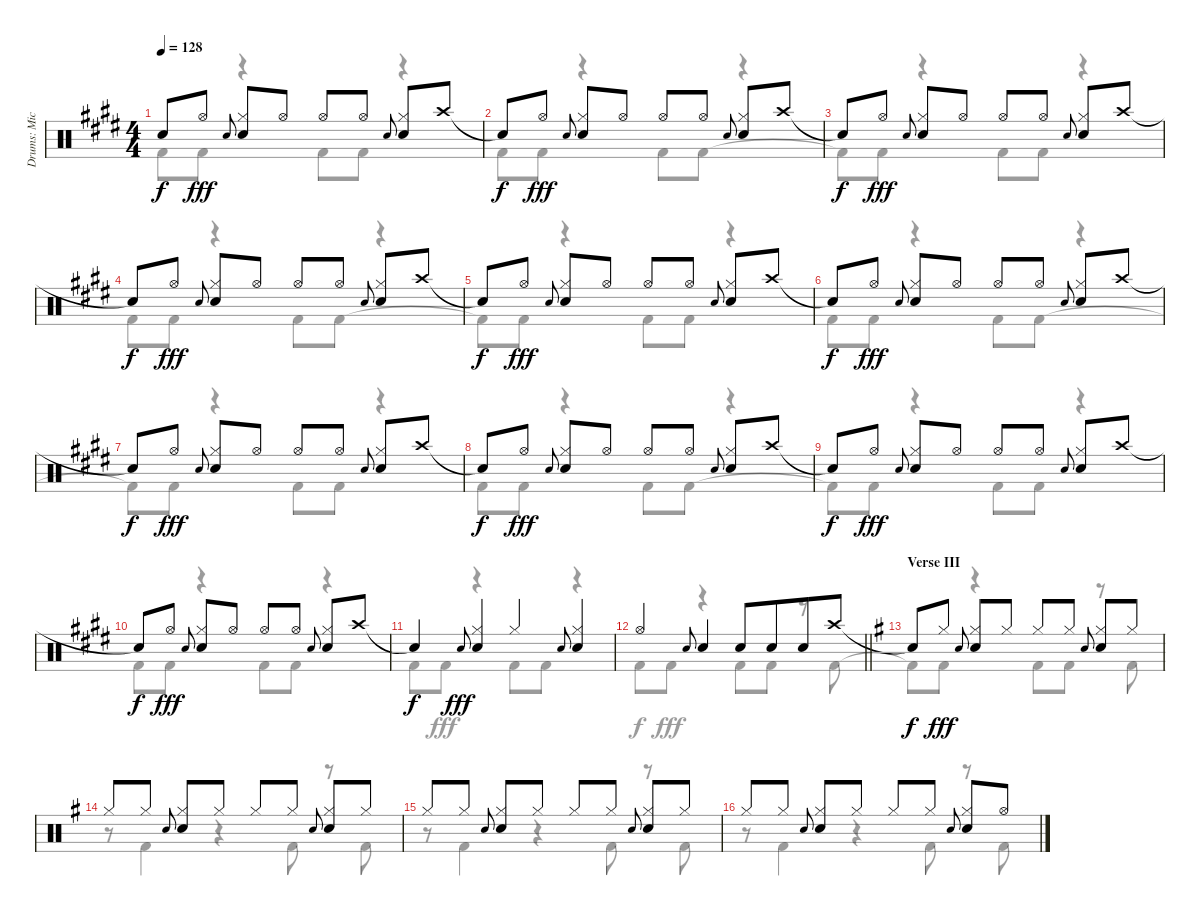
\track ("Drums: Mick" "Drums: Mic") {instrument percussion}
\staff {score}
\articulation defaults
\voice
\ts (4 4)
\tempo 128
\clef neutral
\ks e "Snare (hit)"{t}.8{dy f} "Hi-Hat (open)".8{dy fff} "Electric Snare (hit)".8{gr onbeat beam merge}
("Hi-Hat (closed)" "Snare (hit) 2").8 "Hi-Hat (open)".8 "Hi-Hat (open)".8 "Hi-Hat (open)".8 "Electric Snare (hit)".8{gr onbeat beam merge} ("Hi-Hat (closed)" "Snare (hit) 2").8 "Crash high (hit)".8 |
"Snare (hit)"{t}.8{dy f} "Hi-Hat (open)".8{dy fff} "Electric Snare (hit)".8{gr onbeat beam merge} ("Hi-Hat (closed)" "Snare (hit) 2").8 "Hi-Hat (open)".8 "Hi-Hat (open)".8 "Hi-Hat (open)".8 "Electric Snare (hit)".8{gr onbeat beam merge} ("Hi-Hat (closed)" "Snare (hit) 2").8 "Crash high (hit)".8 |
"Snare (hit)"{t}.8{dy f} "Hi-Hat (open)".8{dy fff} "Electric Snare (hit)".8{gr onbeat beam merge} ("Hi-Hat (closed)" "Snare (hit) 2").8 "Hi-Hat (open)".8 "Hi-Hat (open)".8 "Hi-Hat (open)".8 "Electric Snare (hit)".8{gr onbeat beam merge} ("Hi-Hat (closed)" "Snare (hit) 2").8 "Crash high (hit)".8 |
"Snare (hit)"{t}.8{dy f} "Hi-Hat (open)".8{dy fff} "Electric Snare (hit)".8{gr onbeat beam merge} ("Hi-Hat (closed)" "Snare (hit) 2").8 "Hi-Hat (open)".8 "Hi-Hat (open)".8 "Hi-Hat (open)".8 "Electric Snare (hit)".8{gr onbeat beam merge} ("Hi-Hat (closed)" "Snare (hit) 2").8 "Crash high (hit)".8 |
"Snare (hit)"{t}.8{dy f} "Hi-Hat (open)".8{dy fff} "Electric Snare (hit)".8{gr onbeat beam merge} ("Hi-Hat (closed)" "Snare (hit) 2").8 "Hi-Hat (open)".8 "Hi-Hat (open)".8 "Hi-Hat (open)".8 "Electric Snare (hit)".8{gr onbeat beam merge} ("Hi-Hat (closed)" "Snare (hit) 2").8 "Crash high (hit)".8 |
"Snare (hit)"{t}.8{dy f} "Hi-Hat (open)".8{dy fff} "Electric Snare (hit)".8{gr onbeat beam merge} ("Hi-Hat (closed)" "Snare (hit) 2").8 "Hi-Hat (open)".8 "Hi-Hat (open)".8 "Hi-Hat (open)".8 "Electric Snare (hit)".8{gr onbeat beam merge} ("Hi-Hat (closed)" "Snare (hit) 2").8 "Crash high (hit)".8 |
"Snare (hit)"{t}.8{dy f} "Hi-Hat (open)".8{dy fff} "Electric Snare (hit)".8{gr onbeat beam merge} ("Hi-Hat (closed)" "Snare (hit) 2").8 "Hi-Hat (open)".8 "Hi-Hat (open)".8 "Hi-Hat (open)".8 "Electric Snare (hit)".8{gr onbeat beam merge} ("Hi-Hat (closed)" "Snare (hit) 2").8 "Crash high (hit)".8 |
"Snare (hit)"{t}.8{dy f} "Hi-Hat (open)".8{dy fff} "Electric Snare (hit)".8{gr onbeat beam merge} ("Hi-Hat (closed)" "Snare (hit) 2").8 "Hi-Hat (open)".8 "Hi-Hat (open)".8 "Hi-Hat (open)".8 "Electric Snare (hit)".8{gr onbeat beam merge} ("Hi-Hat (closed)" "Snare (hit) 2").8 "Crash high (hit)".8 |
"Snare (hit)"{t}.8{dy f} "Hi-Hat (open)".8{dy fff} "Electric Snare (hit)".8{gr onbeat beam merge} ("Hi-Hat (closed)" "Snare (hit) 2").8 "Hi-Hat (open)".8 "Hi-Hat (open)".8 "Hi-Hat (open)".8 "Electric Snare (hit)".8{gr onbeat beam merge} ("Hi-Hat (closed)" "Snare (hit) 2").8 "Crash high (hit)".8 |
"Snare (hit)"{t}.8{dy f} "Hi-Hat (open)".8{dy fff} "Electric Snare (hit)".8{gr onbeat beam merge} ("Hi-Hat (closed)" "Snare (hit) 2").8 "Hi-Hat (open)".8 "Hi-Hat (open)".8 "Hi-Hat (open)".8 "Electric Snare (hit)".8{gr onbeat beam merge} ("Hi-Hat (closed)" "Snare (hit) 2").8 "Crash high (hit)".8 |
"Snare (hit)"{t}.4{dy f} "Electric Snare (hit)".8{gr onbeat dy fff} ("Hi-Hat (closed)" "Snare (hit) 2").4 "Hi-Hat (closed)".4 "Electric Snare (hit)".8{gr onbeat} ("Hi-Hat (closed)" "Snare (hit) 2").4 |
\barLineRight lightlight "Hi-Hat (open)".4 "Electric Snare (hit)".8{gr onbeat} "Snare (hit) 2".4 "Snare (hit) 2".8 "Snare (hit) 2".8{beam merge} "Snare (hit) 2".8 "Crash high (hit)".8
|
\section ("" "Verse III")
\ks g "Snare (hit)"{t}.8{dy f} "Hi-Hat (closed)".8{dy fff} "Electric Snare (hit)".8{gr onbeat beam merge}
("Hi-Hat (closed)" "Snare (hit) 2").8 "Hi-Hat (closed)".8 "Hi-Hat (closed)".8 "Hi-Hat (closed)".8 "Electric Snare (hit)".8{gr onbeat beam merge} ("Hi-Hat (closed)" "Snare (hit) 2").8 "Hi-Hat (closed)".8 |
"Hi-Hat (closed)".8 "Hi-Hat (closed)".8 "Electric Snare (hit)".8{gr onbeat beam merge} ("Hi-Hat (closed)" "Snare (hit) 2").8 "Hi-Hat (closed)".8 "Hi-Hat (closed)".8 "Hi-Hat (closed)".8 "Electric Snare (hit)".8{gr onbeat beam merge} ("Hi-Hat (closed)" "Snare (hit) 2").8 "Hi-Hat (closed)".8 |
"Hi-Hat (closed)".8 "Hi-Hat (closed)".8 "Electric Snare (hit)".8{gr onbeat beam merge} ("Hi-Hat (closed)" "Snare (hit) 2").8 "Hi-Hat (closed)".8 "Hi-Hat (closed)".8 "Hi-Hat (closed)".8 "Electric Snare (hit)".8{gr onbeat beam merge} ("Hi-Hat (closed)" "Snare (hit) 2").8 "Hi-Hat (closed)".8 |
"Hi-Hat (closed)".8 "Hi-Hat (closed)".8 "Electric Snare (hit)".8{gr onbeat beam merge} ("Hi-Hat (closed)" "Snare (hit) 2").8 "Hi-Hat (closed)".8 "Hi-Hat (closed)".8 "Hi-Hat (closed)".8 "Electric Snare (hit)".8{gr onbeat beam merge} ("Hi-Hat (closed)" "Snare (hit) 2").8 "Hi-Hat (open)".8
\voice
\clef neutral
\ottava regular
\simile none
\ks e "Kick (hit) 2"{t}.8{dy f} "Kick (hit) 2".8{dy fff}
r.4 "Kick (hit) 2".8 "Kick (hit) 2".8 r.4 |
"Kick (hit) 2".8{dy f} "Kick (hit) 2".8{dy fff} r.4 "Kick (hit) 2".8 "Kick (hit) 2".8 r.4 |
"Kick (hit) 2"{t}.8{dy f} "Kick (hit) 2".8{dy fff} r.4 "Kick (hit) 2".8 "Kick (hit) 2".8 r.4 |
"Kick (hit) 2".8{dy f} "Kick (hit) 2".8{dy fff} r.4 "Kick (hit) 2".8 "Kick (hit) 2".8 r.4 |
"Kick (hit) 2"{t}.8{dy f} "Kick (hit) 2".8{dy fff} r.4 "Kick (hit) 2".8 "Kick (hit) 2".8 r.4 |
"Kick (hit) 2".8{dy f} "Kick (hit) 2".8{dy fff} r.4 "Kick (hit) 2".8 "Kick (hit) 2".8 r.4 |
"Kick (hit) 2"{t}.8{dy f} "Kick (hit) 2".8{dy fff} r.4 "Kick (hit) 2".8 "Kick (hit) 2".8 r.4 |
"Kick (hit) 2".8{dy f} "Kick (hit) 2".8{dy fff} r.4 "Kick (hit) 2".8 "Kick (hit) 2".8 r.4 |
"Kick (hit) 2"{t}.8{dy f} "Kick (hit) 2".8{dy fff} r.4 "Kick (hit) 2".8 "Kick (hit) 2".8 r.4 |
"Kick (hit) 2".8{dy f} "Kick (hit) 2".8{dy fff} r.4 "Kick (hit) 2".8 "Kick (hit) 2".8 r.4 |
"Kick (hit) 2".8{dy f} "Kick (hit) 2".8{dy fff} r.4 "Kick (hit) 2".8 "Kick (hit) 2".8 r.4 |
\barLineRight lightlight "Kick (hit) 2".8{dy f} "Kick (hit) 2".8{dy fff}
r.4 "Kick (hit) 2".8 "Kick (hit) 2".8 r.8 "Kick (hit) 2".8 |
\ks g "Kick (hit) 2"{t}.8{dy f} "Kick (hit) 2".8{dy fff}
r.4 "Kick (hit) 2".8 "Kick (hit) 2".8 r.8 "Kick (hit) 2".8 |
r.8 "Kick (hit) 2".4 r.4 "Kick (hit) 2".8 r.8 "Kick (hit) 2".8 |
r.8 "Kick (hit) 2".4 r.4 "Kick (hit) 2".8 r.8 "Kick (hit) 2".8 |
r.8 "Kick (hit) 2".4 r.4 "Kick (hit) 2".8 r.8 "Kick (hit) 2".8
